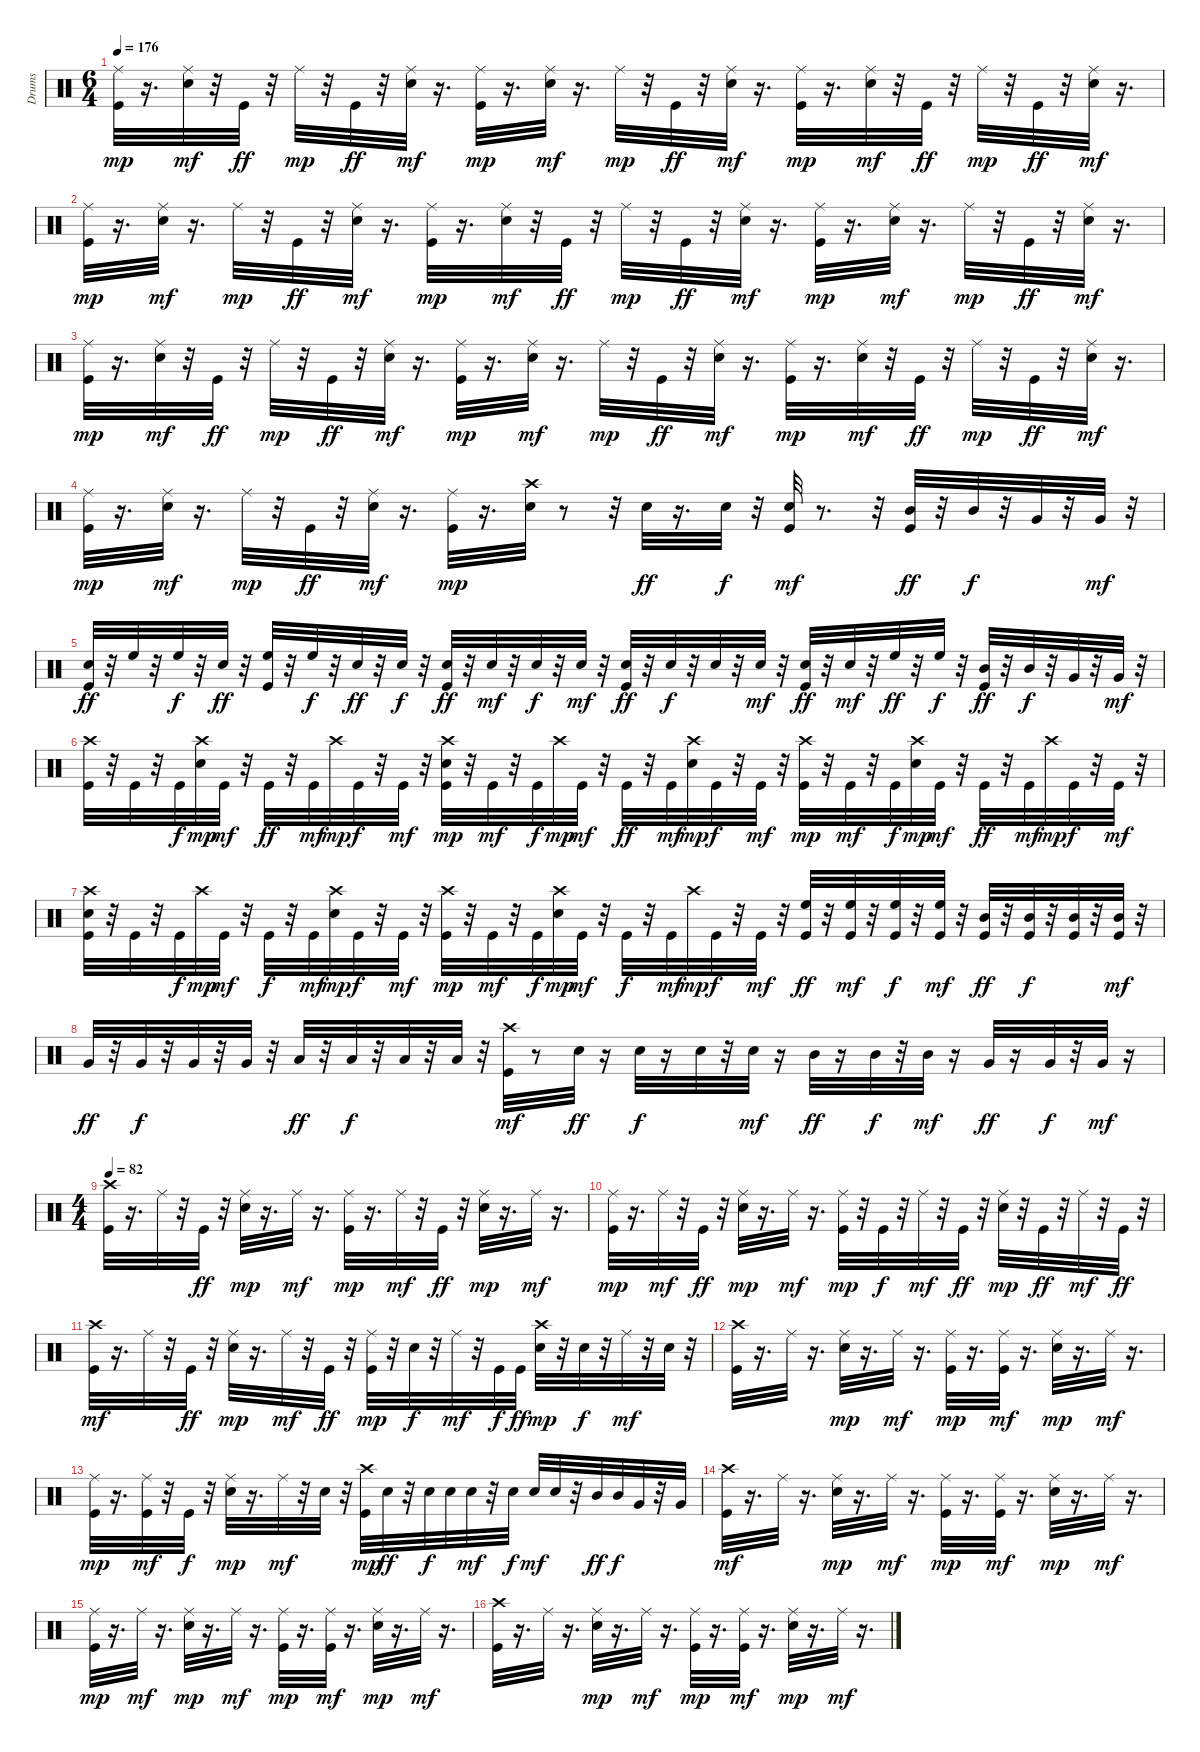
\track ("Drums" "Drums") {instrument percussion}
\staff {score}
\articulation defaults
\ts (6 4)
\tempo 176
\clef neutral
\ks c
("Kick (hit)" "Ride (middle)").32{dy mp} r.16{d} ("Snare (hit) 2" "Ride (middle)").32{dy mf} r.32 "Kick (hit)".32{dy ff} r.32 "Ride (middle)".32{dy mp} r.32 "Kick (hit)".32{dy ff} r.32 ("Snare (hit) 2" "Ride (middle)").32{dy mf} r.16{d} ("Kick (hit)" "Ride (middle)").32{dy mp} r.16{d} ("Snare (hit) 2" "Ride (middle)").32{dy mf} r.16{d} "Ride (middle)".32{dy mp} r.32 "Kick (hit)".32{dy ff} r.32 ("Snare (hit) 2" "Ride (middle)").32{dy mf} r.16{d} ("Kick (hit)" "Ride (middle)").32{dy mp} r.16{d} ("Snare (hit) 2" "Ride (middle)").32{dy mf} r.32 "Kick (hit)".32{dy ff} r.32 "Ride (middle)".32{dy mp} r.32 "Kick (hit)".32{dy ff} r.32 ("Snare (hit) 2" "Ride (middle)").32{dy mf} r.16{d} |
("Kick (hit)" "Ride (middle)").32{dy mp} r.16{d} ("Snare (hit) 2" "Ride (middle)").32{dy mf} r.16{d} "Ride (middle)".32{dy mp} r.32 "Kick (hit)".32{dy ff} r.32 ("Snare (hit) 2" "Ride (middle)").32{dy mf} r.16{d} ("Kick (hit)" "Ride (middle)").32{dy mp} r.16{d} ("Snare (hit) 2" "Ride (middle)").32{dy mf} r.32 "Kick (hit)".32{dy ff} r.32 "Ride (middle)".32{dy mp} r.32 "Kick (hit)".32{dy ff} r.32 ("Snare (hit) 2" "Ride (middle)").32{dy mf} r.16{d} ("Kick (hit)" "Ride (middle)").32{dy mp} r.16{d} ("Snare (hit) 2" "Ride (middle)").32{dy mf} r.16{d} "Ride (middle)".32{dy mp} r.32 "Kick (hit)".32{dy ff} r.32 ("Snare (hit) 2" "Ride (middle)").32{dy mf} r.16{d} |
("Kick (hit)" "Ride (middle)").32{dy mp} r.16{d} ("Snare (hit) 2" "Ride (middle)").32{dy mf} r.32 "Kick (hit)".32{dy ff} r.32 "Ride (middle)".32{dy mp} r.32 "Kick (hit)".32{dy ff} r.32 ("Snare (hit) 2" "Ride (middle)").32{dy mf} r.16{d} ("Kick (hit)" "Ride (middle)").32{dy mp} r.16{d} ("Snare (hit) 2" "Ride (middle)").32{dy mf} r.16{d} "Ride (middle)".32{dy mp} r.32 "Kick (hit)".32{dy ff} r.32 ("Snare (hit) 2" "Ride (middle)").32{dy mf} r.16{d} ("Kick (hit)" "Ride (middle)").32{dy mp} r.16{d} ("Snare (hit) 2" "Ride (middle)").32{dy mf} r.32 "Kick (hit)".32{dy ff} r.32 "Ride (middle)".32{dy mp} r.32 "Kick (hit)".32{dy ff} r.32 ("Snare (hit) 2" "Ride (middle)").32{dy mf} r.16{d} |
("Kick (hit)" "Ride (middle)").32{dy mp} r.16{d} ("Snare (hit) 2" "Ride (middle)").32{dy mf} r.16{d} "Ride (middle)".32{dy mp} r.32 "Kick (hit)".32{dy ff} r.32 ("Snare (hit) 2" "Ride (middle)").32{dy mf} r.16{d} ("Kick (hit)" "Ride (middle)").32{dy mp} r.16{d} ("Snare (hit) 2" "Crash high (hit)").32 r.8 r.32 "Snare (hit) 2".32{dy ff} r.16{d} "Snare (hit) 2".32{dy f} r.32 ("Kick (hit)" "Snare (hit) 2").32{dy mf} r.8{d} r.32 ("Kick (hit)" "Mid Tom (hit)").32{dy ff} r.32 "Mid Tom (hit)".32{dy f} r.32 "Very Low Tom (hit)".32 r.32 "Very Low Tom (hit)".32{dy mf} r.32 |
("Kick (hit)" "Snare (hit) 2").32{dy ff} r.32 "High Floor Tom (hit)".32 r.32 "High Floor Tom (hit)".32{dy f} r.32 "Snare (hit) 2".32{dy ff} r.32 ("Kick (hit)" "High Floor Tom (hit)").32 r.32 "High Floor Tom (hit)".32{dy f} r.32 "Snare (hit) 2".32{dy ff} r.32 "Snare (hit) 2".32{dy f} r.32 ("Kick (hit)" "Snare (hit) 2").32{dy ff} r.32 "Snare (hit) 2".32{dy mf} r.32 "Snare (hit) 2".32{dy f} r.32 "Snare (hit) 2".32{dy mf} r.32 ("Kick (hit)" "Snare (hit) 2").32{dy ff} r.32 "Snare (hit) 2".32{dy f} r.32 "Snare (hit) 2".32 r.32 "Snare (hit) 2".32{dy mf} r.32 ("Kick (hit)" "Snare (hit) 2").32{dy ff} r.32 "Snare (hit) 2".32{dy mf} r.32 "High Floor Tom (hit)".32{dy ff} r.32 "High Floor Tom (hit)".32{dy f} r.32 ("Kick (hit)" "Mid Tom (hit)").32{dy ff} r.32 "Mid Tom (hit)".32{dy f} r.32 "Very Low Tom (hit)".32 r.32 "Very Low Tom (hit)".32{dy mf} r.32 |
("Kick (hit)" "Crash high (hit)").32 r.32 "Kick (hit)".32 r.32 "Kick (hit)".32{dy f} ("Snare (hit) 2" "Crash high (hit)").32{dy mp} "Kick (hit)".32{dy mf} r.32 "Kick (hit)".32{dy ff} r.32 "Kick (hit)".32{dy mf} "Crash high (hit)".32{dy mp} "Kick (hit)".32{dy f} r.32 "Kick (hit)".32{dy mf} r.32 ("Kick (hit)" "Snare (hit) 2" "Crash high (hit)").32{dy mp} r.32 "Kick (hit)".32{dy mf} r.32 "Kick (hit)".32{dy f} "Crash high (hit)".32{dy mp} "Kick (hit)".32{dy mf} r.32 "Kick (hit)".32{dy ff} r.32 "Kick (hit)".32{dy mf} ("Snare (hit) 2" "Crash high (hit)").32{dy mp} "Kick (hit)".32{dy f} r.32 "Kick (hit)".32{dy mf} r.32 ("Kick (hit)" "Crash high (hit)").32{dy mp} r.32 "Kick (hit)".32{dy mf} r.32 "Kick (hit)".32{dy f} ("Snare (hit) 2" "Crash high (hit)").32{dy mp} "Kick (hit)".32{dy mf} r.32 "Kick (hit)".32{dy ff} r.32 "Kick (hit)".32{dy mf} "Crash high (hit)".32{dy mp} "Kick (hit)".32{dy f} r.32 "Kick (hit)".32{dy mf} r.32 |
("Kick (hit)" "Snare (hit) 2" "Crash high (hit)").32 r.32 "Kick (hit)".32 r.32 "Kick (hit)".32{dy f} "Crash high (hit)".32{dy mp} "Kick (hit)".32{dy mf} r.32 "Kick (hit)".32{dy f} r.32 "Kick (hit)".32{dy mf} ("Snare (hit) 2" "Crash high (hit)").32{dy mp} "Kick (hit)".32{dy f} r.32 "Kick (hit)".32{dy mf} r.32 ("Kick (hit)" "Crash high (hit)").32{dy mp} r.32 "Kick (hit)".32{dy mf} r.32 "Kick (hit)".32{dy f} ("Snare (hit) 2" "Crash high (hit)").32{dy mp} "Kick (hit)".32{dy mf} r.32 "Kick (hit)".32{dy f} r.32 "Kick (hit)".32{dy mf} "Crash high (hit)".32{dy mp} "Kick (hit)".32{dy f} r.32 "Kick (hit)".32{dy mf} r.32 ("Kick (hit)" "High Floor Tom (hit)").32{dy ff} r.32 ("Kick (hit)" "High Floor Tom (hit)").32{dy mf} r.32 ("Kick (hit)" "High Floor Tom (hit)").32{dy f} r.32 ("Kick (hit)" "High Floor Tom (hit)").32{dy mf} r.32 ("Kick (hit)" "Mid Tom (hit)").32{dy ff} r.32 ("Kick (hit)" "Mid Tom (hit)").32{dy f} r.32 ("Kick (hit)" "Mid Tom (hit)").32 r.32 ("Kick (hit)" "Mid Tom (hit)").32{dy mf} r.32 |
"Very Low Tom (hit)".32{dy ff} r.32 "Very Low Tom (hit)".32{dy f} r.32 "Very Low Tom (hit)".32 r.32 "Very Low Tom (hit)".32 r.32 "Low Floor Tom (hit)".32{dy ff} r.32 "Low Floor Tom (hit)".32{dy f} r.32 "Low Floor Tom (hit)".32 r.32 "Low Floor Tom (hit)".32 r.32 ("Kick (hit)" "Crash high (hit)").32{dy mf} r.8 "Snare (hit) 2".32{dy ff} r.16 "Snare (hit) 2".32{dy f} r.16 "Snare (hit) 2".32 r.32 "Snare (hit) 2".32{dy mf} r.16 "Mid Tom (hit)".32{dy ff} r.16 "Mid Tom (hit)".32{dy f} r.32 "Mid Tom (hit)".32{dy mf} r.16 "Very Low Tom (hit)".32{dy ff} r.16 "Very Low Tom (hit)".32{dy f} r.32 "Very Low Tom (hit)".32{dy mf} r.16 |
\ts (4 4)
\tempo 82
("Kick (hit)" "Crash high (hit)").32 r.16{d} "Ride (middle)".32 r.32 "Kick (hit)".32{dy ff} r.32 ("Snare (hit) 2" "Ride (middle)").32{dy mp} r.16{d} "Ride (middle)".32{dy mf} r.16{d} ("Kick (hit)" "Ride (middle)").32{dy mp} r.16{d} "Ride (middle)".32{dy mf} r.32 "Kick (hit)".32{dy ff} r.32 ("Snare (hit) 2" "Ride (middle)").32{dy mp} r.16{d} "Ride (middle)".32{dy mf} r.16{d} |
("Kick (hit)" "Ride (middle)").32{dy mp} r.16{d} "Ride (middle)".32{dy mf} r.32 "Kick (hit)".32{dy ff} r.32 ("Snare (hit) 2" "Ride (middle)").32{dy mp} r.16{d} "Ride (middle)".32{dy mf} r.16{d} ("Kick (hit)" "Ride (middle)").32{dy mp} r.32 "Kick (hit)".32{dy f} r.32 "Ride (middle)".32{dy mf} r.32 "Kick (hit)".32{dy ff} r.32 ("Snare (hit) 2" "Ride (middle)").32{dy mp} r.32 "Kick (hit)".32{dy ff} r.32 "Ride (middle)".32{dy mf} r.32 "Kick (hit)".32{dy ff} r.32 |
("Kick (hit)" "Crash high (hit)").32{dy mf} r.16{d} "Ride (middle)".32 r.32 "Kick (hit)".32{dy ff} r.32 ("Snare (hit) 2" "Ride (middle)").32{dy mp} r.16{d} "Ride (middle)".32{dy mf} r.32 "Kick (hit)".32{dy ff} r.32 ("Kick (hit)" "Ride (middle)").32{dy mp} r.32 "Snare (hit) 2".32{dy f} r.32 "Ride (middle)".32{dy mf} r.32 "Kick (hit)".32{dy f} "Kick (hit)".32{dy ff} ("Snare (hit) 2" "Crash high (hit)").32{dy mp} r.32 "Snare (hit) 2".32{dy f} r.32 "Ride (middle)".32{dy mf} r.32 "Snare (hit) 2".32 r.32 |
("Kick (hit)" "Crash high (hit)").32 r.16{d} "Ride (middle)".32 r.16{d} ("Snare (hit) 2" "Ride (middle)").32{dy mp} r.16{d} "Ride (middle)".32{dy mf} r.16{d} ("Kick (hit)" "Ride (middle)").32{dy mp} r.16{d} ("Kick (hit)" "Ride (middle)").32{dy mf} r.16{d} ("Snare (hit) 2" "Ride (middle)").32{dy mp} r.16{d} "Ride (middle)".32{dy mf} r.16{d} |
("Kick (hit)" "Ride (middle)").32{dy mp} r.16{d} ("Kick (hit)" "Ride (middle)").32{dy mf} r.32 "Kick (hit)".32{dy f} r.32 ("Snare (hit) 2" "Ride (middle)").32{dy mp} r.16{d} "Ride (middle)".32{dy mf} r.32 "Snare (hit) 2".32 r.32 ("Kick (hit)" "Crash high (hit)").32{dy mp} "Snare (hit) 2".32{dy ff} r.32 "Snare (hit) 2".32{dy f} "Snare (hit) 2".32 "Snare (hit) 2".32{dy mf} r.32 "Snare (hit) 2".32{dy f} "Snare (hit) 2".32{dy mf} "Snare (hit) 2".32 r.32 "Mid Tom (hit)".32{dy ff} "Mid Tom (hit)".32{dy f} "Very Low Tom (hit)".32 r.32 "Very Low Tom (hit)".32 |
("Kick (hit)" "Crash high (hit)").32{dy mf} r.16{d} "Ride (middle)".32 r.16{d} ("Snare (hit) 2" "Ride (middle)").32{dy mp} r.16{d} "Ride (middle)".32{dy mf} r.16{d} ("Kick (hit)" "Ride (middle)").32{dy mp} r.16{d} ("Kick (hit)" "Ride (middle)").32{dy mf} r.16{d} ("Snare (hit) 2" "Ride (middle)").32{dy mp} r.16{d} "Ride (middle)".32{dy mf} r.16{d} |
("Kick (hit)" "Ride (middle)").32{dy mp} r.16{d} "Ride (middle)".32{dy mf} r.16{d} ("Snare (hit) 2" "Ride (middle)").32{dy mp} r.16{d} "Ride (middle)".32{dy mf} r.16{d} ("Kick (hit)" "Ride (middle)").32{dy mp} r.16{d} ("Kick (hit)" "Ride (middle)").32{dy mf} r.16{d} ("Snare (hit) 2" "Ride (middle)").32{dy mp} r.16{d} "Ride (middle)".32{dy mf} r.16{d} |
("Kick (hit)" "Crash high (hit)").32 r.16{d} "Ride (middle)".32 r.16{d} ("Snare (hit) 2" "Ride (middle)").32{dy mp} r.16{d} "Ride (middle)".32{dy mf} r.16{d} ("Kick (hit)" "Ride (middle)").32{dy mp} r.16{d} ("Kick (hit)" "Ride (middle)").32{dy mf} r.16{d} ("Snare (hit) 2" "Ride (middle)").32{dy mp} r.16{d} "Ride (middle)".32{dy mf} r.16{d}
